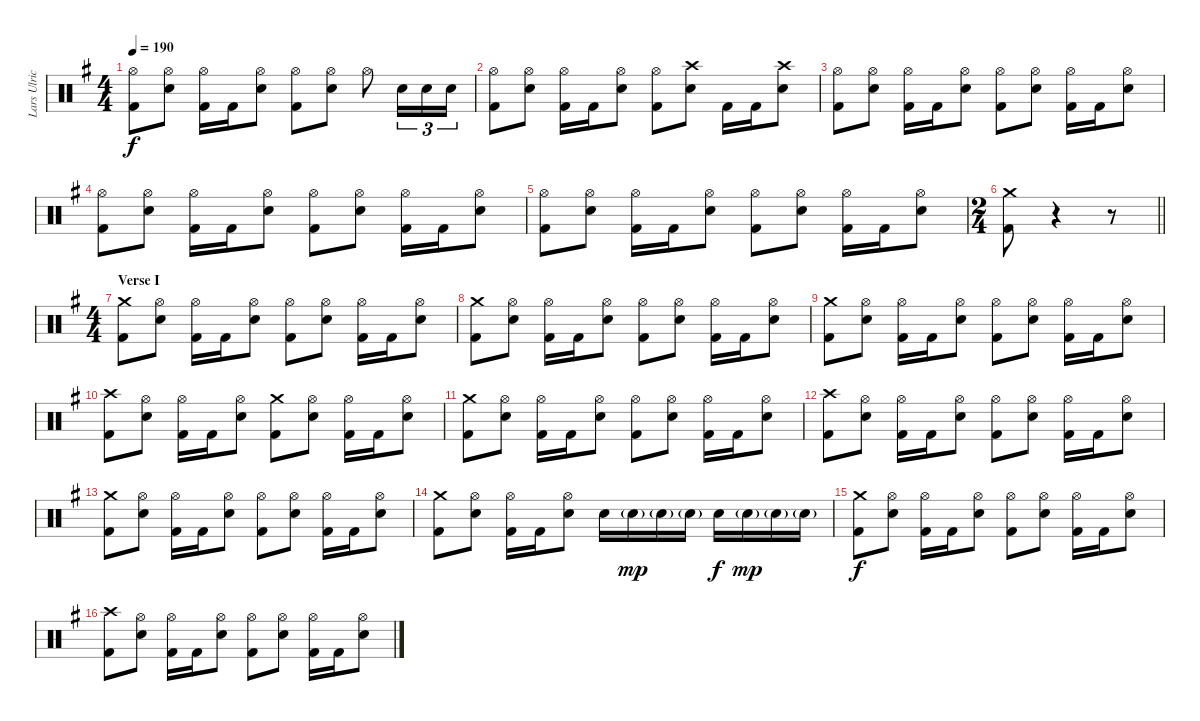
\track ("Lars Ulrich - Drums" "Lars Ulric") {instrument percussion}
\staff {score}
\articulation defaults
\ts (4 4)
\tempo 190
\clef neutral
\ks eminor
("Hi-Hat (open)" "Kick (hit) 2").8{dy f} ("Hi-Hat (open)" "Snare (hit) 2").8 ("Hi-Hat (open)" "Kick (hit) 2").16 "Kick (hit) 2".16 ("Hi-Hat (open)" "Snare (hit) 2").8 ("Hi-Hat (open)" "Kick (hit) 2").8 ("Hi-Hat (open)" "Snare (hit) 2").8 "Hi-Hat (open)".8 "Snare (hit) 2".16{tu (3 2)} "Snare (hit) 2".16{tu (3 2)} "Snare (hit) 2".16{tu (3 2)} |
("Hi-Hat (open)" "Kick (hit) 2").8 ("Hi-Hat (open)" "Snare (hit) 2").8 ("Hi-Hat (open)" "Kick (hit) 2").16 "Kick (hit) 2".16 ("Hi-Hat (open)" "Snare (hit) 2").8 ("Hi-Hat (open)" "Kick (hit) 2").8 ("Crash high (hit)" "Snare (hit) 2").8 "Kick (hit) 2".16 "Kick (hit) 2".16 ("Crash high (hit)" "Snare (hit) 2").8 |
("Hi-Hat (open)" "Kick (hit) 2").8 ("Hi-Hat (open)" "Snare (hit) 2").8 ("Hi-Hat (open)" "Kick (hit) 2").16 "Kick (hit) 2".16 ("Hi-Hat (open)" "Snare (hit) 2").8 ("Hi-Hat (open)" "Kick (hit) 2").8 ("Hi-Hat (open)" "Snare (hit) 2").8 ("Hi-Hat (open)" "Kick (hit) 2").16 "Kick (hit) 2".16 ("Hi-Hat (open)" "Snare (hit) 2").8 |
("Hi-Hat (open)" "Kick (hit) 2").8 ("Hi-Hat (open)" "Snare (hit) 2").8 ("Hi-Hat (open)" "Kick (hit) 2").16 "Kick (hit) 2".16 ("Hi-Hat (open)" "Snare (hit) 2").8 ("Hi-Hat (open)" "Kick (hit) 2").8 ("Hi-Hat (open)" "Snare (hit) 2").8 ("Hi-Hat (open)" "Kick (hit) 2").16 "Kick (hit) 2".16 ("Hi-Hat (open)" "Snare (hit) 2").8 |
("Hi-Hat (open)" "Kick (hit) 2").8 ("Hi-Hat (open)" "Snare (hit) 2").8 ("Hi-Hat (open)" "Kick (hit) 2").16 "Kick (hit) 2".16 ("Hi-Hat (open)" "Snare (hit) 2").8 ("Hi-Hat (open)" "Kick (hit) 2").8 ("Hi-Hat (open)" "Snare (hit) 2").8 ("Hi-Hat (open)" "Kick (hit) 2").16 "Kick (hit) 2".16 ("Hi-Hat (open)" "Snare (hit) 2").8 |
\ts (2 4)
\barLineRight lightlight
("Crash medium (hit)" "Kick (hit) 2").8 r.4 r.8 |
\ts (4 4)
\section ("" "Verse I")
("Crash medium (hit)" "Kick (hit) 2").8 ("Hi-Hat (open)" "Snare (hit) 2").8 ("Hi-Hat (open)" "Kick (hit) 2").16 "Kick (hit) 2".16 ("Hi-Hat (open)" "Snare (hit) 2").8 ("Hi-Hat (open)" "Kick (hit) 2").8 ("Hi-Hat (open)" "Snare (hit) 2").8 ("Hi-Hat (open)" "Kick (hit) 2").16 "Kick (hit) 2".16 ("Hi-Hat (open)" "Snare (hit) 2").8 |
("Crash medium (hit)" "Kick (hit) 2").8 ("Hi-Hat (open)" "Snare (hit) 2").8 ("Hi-Hat (open)" "Kick (hit) 2").16 "Kick (hit) 2".16 ("Hi-Hat (open)" "Snare (hit) 2").8 ("Hi-Hat (open)" "Kick (hit) 2").8 ("Hi-Hat (open)" "Snare (hit) 2").8 ("Hi-Hat (open)" "Kick (hit) 2").16 "Kick (hit) 2".16 ("Hi-Hat (open)" "Snare (hit) 2").8 |
("Crash medium (hit)" "Kick (hit) 2").8 ("Hi-Hat (open)" "Snare (hit) 2").8 ("Hi-Hat (open)" "Kick (hit) 2").16 "Kick (hit) 2".16 ("Hi-Hat (open)" "Snare (hit) 2").8 ("Hi-Hat (open)" "Kick (hit) 2").8 ("Hi-Hat (open)" "Snare (hit) 2").8 ("Hi-Hat (open)" "Kick (hit) 2").16 "Kick (hit) 2".16 ("Hi-Hat (open)" "Snare (hit) 2").8 |
("Crash high (hit)" "Kick (hit) 2").8 ("Hi-Hat (open)" "Snare (hit) 2").8 ("Hi-Hat (open)" "Kick (hit) 2").16 "Kick (hit) 2".16 ("Hi-Hat (open)" "Snare (hit) 2").8 ("Crash medium (hit)" "Kick (hit) 2").8 ("Hi-Hat (open)" "Snare (hit) 2").8 ("Hi-Hat (open)" "Kick (hit) 2").16 "Kick (hit) 2".16 ("Hi-Hat (open)" "Snare (hit) 2").8 |
("Crash medium (hit)" "Kick (hit) 2").8 ("Hi-Hat (open)" "Snare (hit) 2").8 ("Hi-Hat (open)" "Kick (hit) 2").16 "Kick (hit) 2".16 ("Hi-Hat (open)" "Snare (hit) 2").8 ("Hi-Hat (open)" "Kick (hit) 2").8 ("Hi-Hat (open)" "Snare (hit) 2").8 ("Hi-Hat (open)" "Kick (hit) 2").16 "Kick (hit) 2".16 ("Hi-Hat (open)" "Snare (hit) 2").8 |
("Crash high (hit)" "Kick (hit) 2").8 ("Hi-Hat (open)" "Snare (hit) 2").8 ("Hi-Hat (open)" "Kick (hit) 2").16 "Kick (hit) 2".16 ("Hi-Hat (open)" "Snare (hit) 2").8 ("Hi-Hat (open)" "Kick (hit) 2").8 ("Hi-Hat (open)" "Snare (hit) 2").8 ("Hi-Hat (open)" "Kick (hit) 2").16 "Kick (hit) 2".16 ("Hi-Hat (open)" "Snare (hit) 2").8 |
("Crash medium (hit)" "Kick (hit) 2").8 ("Hi-Hat (open)" "Snare (hit) 2").8 ("Hi-Hat (open)" "Kick (hit) 2").16 "Kick (hit) 2".16 ("Hi-Hat (open)" "Snare (hit) 2").8 ("Hi-Hat (open)" "Kick (hit) 2").8 ("Hi-Hat (open)" "Snare (hit) 2").8 ("Hi-Hat (open)" "Kick (hit) 2").16 "Kick (hit) 2".16 ("Hi-Hat (open)" "Snare (hit) 2").8 |
("Crash medium (hit)" "Kick (hit) 2").8 ("Hi-Hat (open)" "Snare (hit) 2").8 ("Hi-Hat (open)" "Kick (hit) 2").16 "Kick (hit) 2".16 ("Hi-Hat (open)" "Snare (hit) 2").8 "Snare (hit) 2".16 "Snare (hit) 2"{g}.16{dy mp} "Snare (hit) 2"{g}.16 "Snare (hit) 2"{g}.16 "Snare (hit) 2".16{dy f} "Snare (hit) 2"{g}.16{dy mp} "Snare (hit) 2"{g}.16 "Snare (hit) 2"{g}.16 |
("Crash medium (hit)" "Kick (hit) 2").8{dy f} ("Hi-Hat (open)" "Snare (hit) 2").8 ("Hi-Hat (open)" "Kick (hit) 2").16 "Kick (hit) 2".16 ("Hi-Hat (open)" "Snare (hit) 2").8 ("Hi-Hat (open)" "Kick (hit) 2").8 ("Hi-Hat (open)" "Snare (hit) 2").8 ("Hi-Hat (open)" "Kick (hit) 2").16 "Kick (hit) 2".16 ("Hi-Hat (open)" "Snare (hit) 2").8 |
("Crash high (hit)" "Kick (hit) 2").8 ("Hi-Hat (open)" "Snare (hit) 2").8 ("Hi-Hat (open)" "Kick (hit) 2").16 "Kick (hit) 2".16 ("Hi-Hat (open)" "Snare (hit) 2").8 ("Hi-Hat (open)" "Kick (hit) 2").8 ("Hi-Hat (open)" "Snare (hit) 2").8 ("Hi-Hat (open)" "Kick (hit) 2").16 "Kick (hit) 2".16 ("Hi-Hat (open)" "Snare (hit) 2").8
